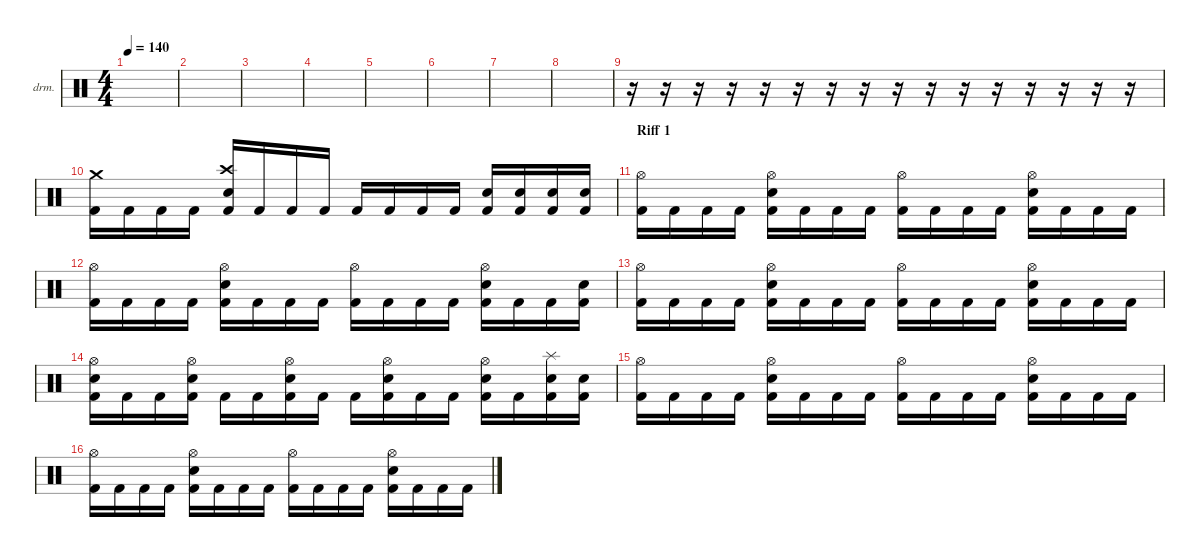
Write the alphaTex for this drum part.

\defaultSystemsLayout 4
\hideDynamics
\bracketExtendMode nobrackets
\firstSystemTrackNameOrientation horizontal
\otherSystemsTrackNameOrientation horizontal
\track ("Drumkit" "drm.") {instrument percussion}
\staff {score}
\articulation defaults
\ts (4 4)
\beaming (8 2 2 2 2)
\tempo 140
\clef neutral
\ks c
|
|
|
|
|
|
|
|
r.16 r.16 r.16 r.16 r.16 r.16 r.16 r.16 r.16 r.16 r.16 r.16 r.16 r.16 r.16 r.16 |
("Crash medium (hit)" "Kick (hit) 2").16 "Kick (hit) 2".16 "Kick (hit) 2".16 "Kick (hit) 2".16 ("Crash high (hit)" "Snare (hit) 2" "Kick (hit) 2").16 "Kick (hit) 2".16 "Kick (hit) 2".16 "Kick (hit) 2".16 "Kick (hit) 2".16 "Kick (hit) 2".16 "Kick (hit) 2".16 "Kick (hit) 2".16 ("Snare (hit) 2" "Kick (hit) 2").16 ("Snare (hit) 2" "Kick (hit) 2").16 ("Snare (hit) 2" "Kick (hit) 2").16 ("Snare (hit) 2" "Kick (hit) 2").16 |
\section ("" "Riff 1")
("Hi-Hat (open)" "Kick (hit) 2").16{dy ff} "Kick (hit) 2".16 "Kick (hit) 2".16 "Kick (hit) 2".16 ("Hi-Hat (open)" "Snare (hit) 2" "Kick (hit) 2").16 "Kick (hit) 2".16 "Kick (hit) 2".16 "Kick (hit) 2".16 ("Hi-Hat (open)" "Kick (hit) 2").16 "Kick (hit) 2".16 "Kick (hit) 2".16 "Kick (hit) 2".16 ("Hi-Hat (open)" "Snare (hit) 2" "Kick (hit) 2").16 "Kick (hit) 2".16 "Kick (hit) 2".16 "Kick (hit) 2".16 |
("Hi-Hat (open)" "Kick (hit) 2").16 "Kick (hit) 2".16 "Kick (hit) 2".16 "Kick (hit) 2".16 ("Hi-Hat (open)" "Snare (hit) 2" "Kick (hit) 2").16 "Kick (hit) 2".16 "Kick (hit) 2".16 "Kick (hit) 2".16 ("Hi-Hat (open)" "Kick (hit) 2").16 "Kick (hit) 2".16 "Kick (hit) 2".16 "Kick (hit) 2".16 ("Hi-Hat (open)" "Snare (hit) 2" "Kick (hit) 2").16 "Kick (hit) 2".16 "Kick (hit) 2".16 ("Snare (hit) 2" "Kick (hit) 2").16 |
("Hi-Hat (open)" "Kick (hit) 2").16 "Kick (hit) 2".16 "Kick (hit) 2".16 "Kick (hit) 2".16 ("Hi-Hat (open)" "Snare (hit) 2" "Kick (hit) 2").16 "Kick (hit) 2".16 "Kick (hit) 2".16 "Kick (hit) 2".16 ("Hi-Hat (open)" "Kick (hit) 2").16 "Kick (hit) 2".16 "Kick (hit) 2".16 "Kick (hit) 2".16 ("Hi-Hat (open)" "Snare (hit) 2" "Kick (hit) 2").16 "Kick (hit) 2".16 "Kick (hit) 2".16 "Kick (hit) 2".16 |
("Hi-Hat (open)" "Snare (hit) 2" "Kick (hit) 2").16 "Kick (hit) 2".16 "Kick (hit) 2".16 ("Hi-Hat (open)" "Snare (hit) 2" "Kick (hit) 2").16 "Kick (hit) 2".16 "Kick (hit) 2".16 ("Hi-Hat (open)" "Snare (hit) 2" "Kick (hit) 2").16 "Kick (hit) 2".16 "Kick (hit) 2".16 ("Hi-Hat (open)" "Snare (hit) 2" "Kick (hit) 2").16 "Kick (hit) 2".16 "Kick (hit) 2".16 ("Hi-Hat (open)" "Snare (hit) 2" "Kick (hit) 2").16 "Kick (hit) 2".16 ("Splash (hit)" "Snare (hit) 2" "Kick (hit) 2").16 ("Snare (hit) 2" "Kick (hit) 2").16 |
("Hi-Hat (open)" "Kick (hit) 2").16 "Kick (hit) 2".16 "Kick (hit) 2".16 "Kick (hit) 2".16 ("Hi-Hat (open)" "Snare (hit) 2" "Kick (hit) 2").16 "Kick (hit) 2".16 "Kick (hit) 2".16 "Kick (hit) 2".16 ("Hi-Hat (open)" "Kick (hit) 2").16 "Kick (hit) 2".16 "Kick (hit) 2".16 "Kick (hit) 2".16 ("Hi-Hat (open)" "Snare (hit) 2" "Kick (hit) 2").16 "Kick (hit) 2".16 "Kick (hit) 2".16 "Kick (hit) 2".16 |
("Hi-Hat (open)" "Kick (hit) 2").16 "Kick (hit) 2".16 "Kick (hit) 2".16 "Kick (hit) 2".16 ("Hi-Hat (open)" "Snare (hit) 2" "Kick (hit) 2").16 "Kick (hit) 2".16 "Kick (hit) 2".16 "Kick (hit) 2".16 ("Hi-Hat (open)" "Kick (hit) 2").16 "Kick (hit) 2".16 "Kick (hit) 2".16 "Kick (hit) 2".16 ("Hi-Hat (open)" "Snare (hit) 2" "Kick (hit) 2").16 "Kick (hit) 2".16 "Kick (hit) 2".16 "Kick (hit) 2".16
